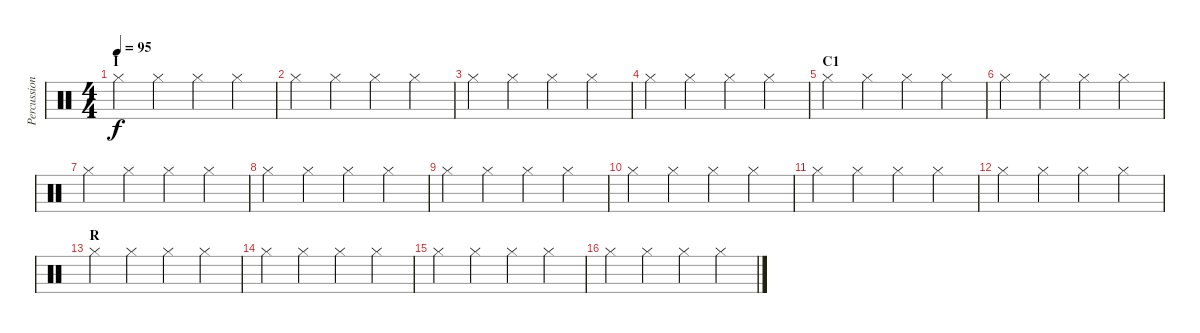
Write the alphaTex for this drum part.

\track ("Percussions" "Percussion") {instrument percussion}
\staff {score}
\articulation defaults
\ts (4 4)
\section ("" "I")
\tempo 95
\clef neutral
\ks c "Hi-Hat (closed)".4{dy f} "Hi-Hat (closed)".4 "Hi-Hat (closed)".4 "Hi-Hat (closed)".4
|
"Hi-Hat (closed)".4 "Hi-Hat (closed)".4 "Hi-Hat (closed)".4 "Hi-Hat (closed)".4 |
"Hi-Hat (closed)".4 "Hi-Hat (closed)".4 "Hi-Hat (closed)".4 "Hi-Hat (closed)".4 |
"Hi-Hat (closed)".4 "Hi-Hat (closed)".4 "Hi-Hat (closed)".4 "Hi-Hat (closed)".4 |
\section ("" "C1")
"Hi-Hat (closed)".4 "Hi-Hat (closed)".4 "Hi-Hat (closed)".4 "Hi-Hat (closed)".4 |
"Hi-Hat (closed)".4 "Hi-Hat (closed)".4 "Hi-Hat (closed)".4 "Hi-Hat (closed)".4 |
"Hi-Hat (closed)".4 "Hi-Hat (closed)".4 "Hi-Hat (closed)".4 "Hi-Hat (closed)".4 |
"Hi-Hat (closed)".4 "Hi-Hat (closed)".4 "Hi-Hat (closed)".4 "Hi-Hat (closed)".4 |
"Hi-Hat (closed)".4 "Hi-Hat (closed)".4 "Hi-Hat (closed)".4 "Hi-Hat (closed)".4 |
"Hi-Hat (closed)".4 "Hi-Hat (closed)".4 "Hi-Hat (closed)".4 "Hi-Hat (closed)".4 |
"Hi-Hat (closed)".4 "Hi-Hat (closed)".4 "Hi-Hat (closed)".4 "Hi-Hat (closed)".4 |
"Hi-Hat (closed)".4 "Hi-Hat (closed)".4 "Hi-Hat (closed)".4 "Hi-Hat (closed)".4 |
\section ("" "R")
"Hi-Hat (closed)".4 "Hi-Hat (closed)".4 "Hi-Hat (closed)".4 "Hi-Hat (closed)".4 |
"Hi-Hat (closed)".4 "Hi-Hat (closed)".4 "Hi-Hat (closed)".4 "Hi-Hat (closed)".4 |
"Hi-Hat (closed)".4 "Hi-Hat (closed)".4 "Hi-Hat (closed)".4 "Hi-Hat (closed)".4 |
"Hi-Hat (closed)".4 "Hi-Hat (closed)".4 "Hi-Hat (closed)".4 "Hi-Hat (closed)".4
